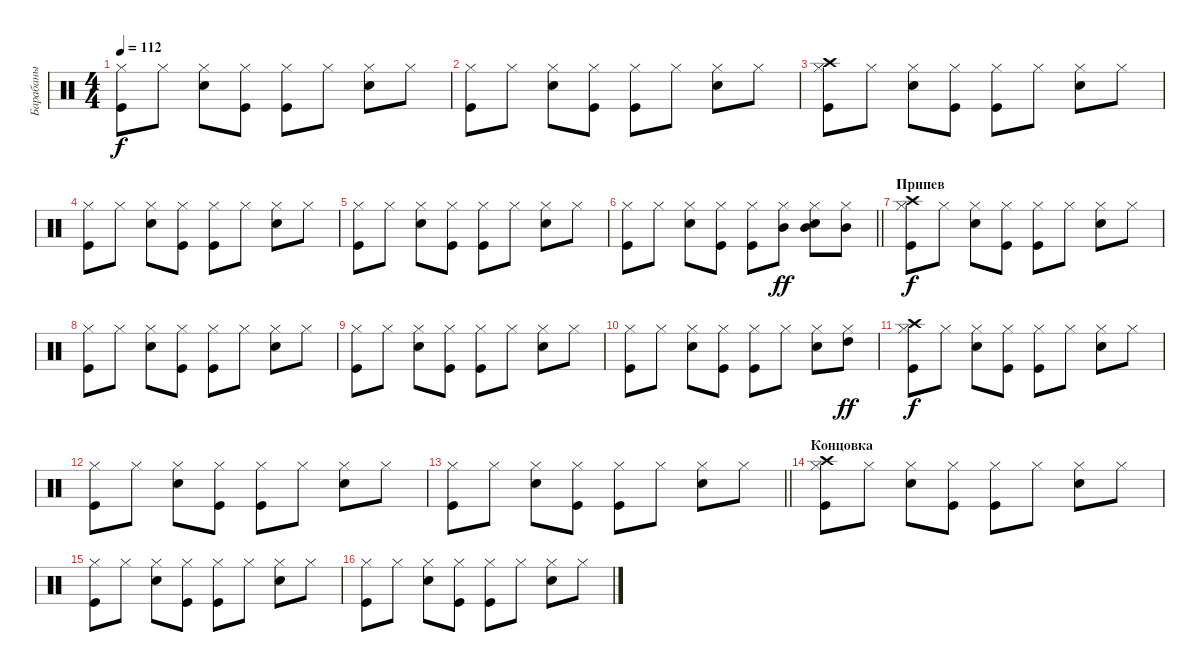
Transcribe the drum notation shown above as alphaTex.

\track ("Барабаны" "Барабаны") {instrument percussion}
\staff {score}
\articulation defaults
\ts (4 4)
\tempo 112
\clef neutral
\ks c
("Kick (hit)" "Hi-Hat (closed)").8{dy f} "Hi-Hat (closed)".8 ("Snare (hit) 2" "Hi-Hat (closed)").8 ("Kick (hit)" "Hi-Hat (closed)").8 ("Kick (hit)" "Hi-Hat (closed)").8 "Hi-Hat (closed)".8 ("Snare (hit) 2" "Hi-Hat (closed)").8 "Hi-Hat (closed)".8 |
("Kick (hit)" "Hi-Hat (closed)").8 "Hi-Hat (closed)".8 ("Snare (hit) 2" "Hi-Hat (closed)").8 ("Kick (hit)" "Hi-Hat (closed)").8 ("Kick (hit)" "Hi-Hat (closed)").8 "Hi-Hat (closed)".8 ("Snare (hit) 2" "Hi-Hat (closed)").8 "Hi-Hat (closed)".8 |
("Kick (hit)" "Hi-Hat (closed)" "Crash high (hit)").8 "Hi-Hat (closed)".8 ("Snare (hit) 2" "Hi-Hat (closed)").8 ("Kick (hit)" "Hi-Hat (closed)").8 ("Kick (hit)" "Hi-Hat (closed)").8 "Hi-Hat (closed)".8 ("Snare (hit) 2" "Hi-Hat (closed)").8 "Hi-Hat (closed)".8 |
("Kick (hit)" "Hi-Hat (closed)").8 "Hi-Hat (closed)".8 ("Snare (hit) 2" "Hi-Hat (closed)").8 ("Kick (hit)" "Hi-Hat (closed)").8 ("Kick (hit)" "Hi-Hat (closed)").8 "Hi-Hat (closed)".8 ("Snare (hit) 2" "Hi-Hat (closed)").8 "Hi-Hat (closed)".8 |
("Kick (hit)" "Hi-Hat (closed)").8 "Hi-Hat (closed)".8 ("Snare (hit) 2" "Hi-Hat (closed)").8 ("Kick (hit)" "Hi-Hat (closed)").8 ("Kick (hit)" "Hi-Hat (closed)").8 "Hi-Hat (closed)".8 ("Snare (hit) 2" "Hi-Hat (closed)").8 "Hi-Hat (closed)".8 |
\barLineRight lightlight
("Kick (hit)" "Hi-Hat (closed)").8 "Hi-Hat (closed)".8 ("Snare (hit) 2" "Hi-Hat (closed)").8 ("Kick (hit)" "Hi-Hat (closed)").8 ("Kick (hit)" "Hi-Hat (closed)").8 ("Hi-Hat (closed)" "Mid Tom (hit)").8{dy ff} ("Snare (hit) 2" "Hi-Hat (closed)" "Mid Tom (hit)").8 ("Hi-Hat (closed)" "Mid Tom (hit)").8 |
\section ("" "Припев")
("Kick (hit)" "Hi-Hat (closed)" "Crash high (hit)").8{dy f} "Hi-Hat (closed)".8 ("Snare (hit) 2" "Hi-Hat (closed)").8 ("Kick (hit)" "Hi-Hat (closed)").8 ("Kick (hit)" "Hi-Hat (closed)").8 "Hi-Hat (closed)".8 ("Snare (hit) 2" "Hi-Hat (closed)").8 "Hi-Hat (closed)".8 |
("Kick (hit)" "Hi-Hat (closed)").8 "Hi-Hat (closed)".8 ("Snare (hit) 2" "Hi-Hat (closed)").8 ("Kick (hit)" "Hi-Hat (closed)").8 ("Kick (hit)" "Hi-Hat (closed)").8 "Hi-Hat (closed)".8 ("Snare (hit) 2" "Hi-Hat (closed)").8 "Hi-Hat (closed)".8 |
("Kick (hit)" "Hi-Hat (closed)").8 "Hi-Hat (closed)".8 ("Snare (hit) 2" "Hi-Hat (closed)").8 ("Kick (hit)" "Hi-Hat (closed)").8 ("Kick (hit)" "Hi-Hat (closed)").8 "Hi-Hat (closed)".8 ("Snare (hit) 2" "Hi-Hat (closed)").8 "Hi-Hat (closed)".8 |
("Kick (hit)" "Hi-Hat (closed)").8 "Hi-Hat (closed)".8 ("Snare (hit) 2" "Hi-Hat (closed)").8 ("Kick (hit)" "Hi-Hat (closed)").8 ("Kick (hit)" "Hi-Hat (closed)").8 "Hi-Hat (closed)".8 ("Snare (hit) 2" "Hi-Hat (closed)").8 ("Hi-Hat (closed)" "High Tom (hit)").8{dy ff} |
("Kick (hit)" "Hi-Hat (closed)" "Crash high (hit)").8{dy f} "Hi-Hat (closed)".8 ("Snare (hit) 2" "Hi-Hat (closed)").8 ("Kick (hit)" "Hi-Hat (closed)").8 ("Kick (hit)" "Hi-Hat (closed)").8 "Hi-Hat (closed)".8 ("Snare (hit) 2" "Hi-Hat (closed)").8 "Hi-Hat (closed)".8 |
("Kick (hit)" "Hi-Hat (closed)").8 "Hi-Hat (closed)".8 ("Snare (hit) 2" "Hi-Hat (closed)").8 ("Kick (hit)" "Hi-Hat (closed)").8 ("Kick (hit)" "Hi-Hat (closed)").8 "Hi-Hat (closed)".8 ("Snare (hit) 2" "Hi-Hat (closed)").8 "Hi-Hat (closed)".8 |
\barLineRight lightlight
("Kick (hit)" "Hi-Hat (closed)").8 "Hi-Hat (closed)".8 ("Snare (hit) 2" "Hi-Hat (closed)").8 ("Kick (hit)" "Hi-Hat (closed)").8 ("Kick (hit)" "Hi-Hat (closed)").8 "Hi-Hat (closed)".8 ("Snare (hit) 2" "Hi-Hat (closed)").8 "Hi-Hat (closed)".8 |
\section ("" "Концовка")
("Kick (hit)" "Hi-Hat (closed)" "Crash high (hit)").8 "Hi-Hat (closed)".8 ("Snare (hit) 2" "Hi-Hat (closed)").8 ("Kick (hit)" "Hi-Hat (closed)").8 ("Kick (hit)" "Hi-Hat (closed)").8 "Hi-Hat (closed)".8 ("Snare (hit) 2" "Hi-Hat (closed)").8 "Hi-Hat (closed)".8 |
("Kick (hit)" "Hi-Hat (closed)").8 "Hi-Hat (closed)".8 ("Snare (hit) 2" "Hi-Hat (closed)").8 ("Kick (hit)" "Hi-Hat (closed)").8 ("Kick (hit)" "Hi-Hat (closed)").8 "Hi-Hat (closed)".8 ("Snare (hit) 2" "Hi-Hat (closed)").8 "Hi-Hat (closed)".8 |
("Kick (hit)" "Hi-Hat (closed)").8 "Hi-Hat (closed)".8 ("Snare (hit) 2" "Hi-Hat (closed)").8 ("Kick (hit)" "Hi-Hat (closed)").8 ("Kick (hit)" "Hi-Hat (closed)").8 "Hi-Hat (closed)".8 ("Snare (hit) 2" "Hi-Hat (closed)").8 "Hi-Hat (closed)".8
